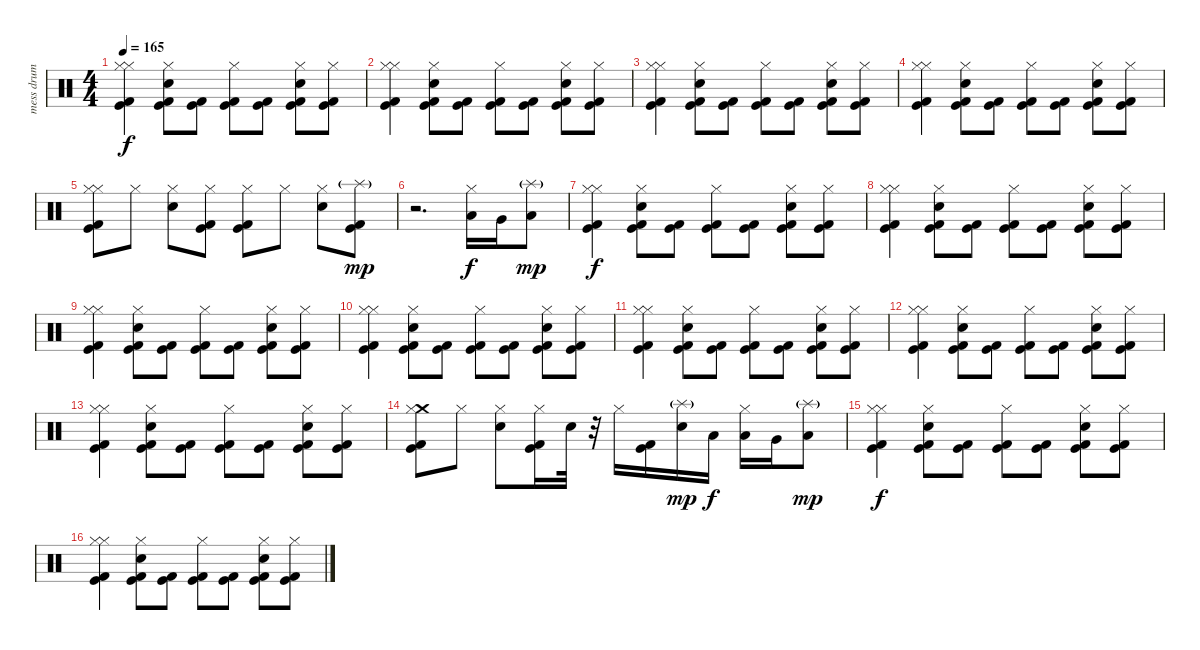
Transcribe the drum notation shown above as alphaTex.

\track ("mess drum" "mess drum") {instrument percussion}
\staff {score}
\articulation defaults
\ts (4 4)
\tempo 165
\clef neutral
\ks c
("Hi-Hat (closed)" "Kick (hit)" "Kick (hit) 2" "Hi-Hat (closed)").4{dy f} ("Kick (hit)" "Kick (hit) 2" "Hi-Hat (closed)" "Electric Snare (hit)").8 ("Kick (hit)" "Kick (hit) 2").8 ("Kick (hit)" "Kick (hit) 2" "Hi-Hat (closed)").8 ("Kick (hit)" "Kick (hit) 2").8 ("Kick (hit)" "Kick (hit) 2" "Hi-Hat (closed)" "Electric Snare (hit)").8 ("Kick (hit)" "Kick (hit) 2" "Hi-Hat (closed)").8 |
("Hi-Hat (closed)" "Kick (hit)" "Kick (hit) 2" "Hi-Hat (closed)").4 ("Kick (hit)" "Kick (hit) 2" "Hi-Hat (closed)" "Electric Snare (hit)").8 ("Kick (hit)" "Kick (hit) 2").8 ("Kick (hit)" "Kick (hit) 2" "Hi-Hat (closed)").8 ("Kick (hit)" "Kick (hit) 2").8 ("Kick (hit)" "Kick (hit) 2" "Hi-Hat (closed)" "Electric Snare (hit)").8 ("Kick (hit)" "Kick (hit) 2" "Hi-Hat (closed)").8 |
("Hi-Hat (closed)" "Kick (hit)" "Kick (hit) 2" "Hi-Hat (closed)").4 ("Kick (hit)" "Kick (hit) 2" "Hi-Hat (closed)" "Electric Snare (hit)").8 ("Kick (hit)" "Kick (hit) 2").8 ("Kick (hit)" "Kick (hit) 2" "Hi-Hat (closed)").8 ("Kick (hit)" "Kick (hit) 2").8 ("Kick (hit)" "Kick (hit) 2" "Hi-Hat (closed)" "Electric Snare (hit)").8 ("Kick (hit)" "Kick (hit) 2" "Hi-Hat (closed)").8 |
("Hi-Hat (closed)" "Kick (hit)" "Kick (hit) 2" "Hi-Hat (closed)").4 ("Kick (hit)" "Kick (hit) 2" "Hi-Hat (closed)" "Electric Snare (hit)").8 ("Kick (hit)" "Kick (hit) 2").8 ("Kick (hit)" "Kick (hit) 2" "Hi-Hat (closed)").8 ("Kick (hit)" "Kick (hit) 2").8 ("Kick (hit)" "Kick (hit) 2" "Hi-Hat (closed)" "Electric Snare (hit)").8 ("Kick (hit)" "Kick (hit) 2" "Hi-Hat (closed)").8 |
("Hi-Hat (closed)" "Kick (hit)" "Kick (hit) 2" "Hi-Hat (closed)").8 "Hi-Hat (closed)".8 ("Electric Snare (hit)" "Hi-Hat (closed)").8 ("Kick (hit)" "Kick (hit) 2" "Hi-Hat (closed)").8 ("Kick (hit)" "Kick (hit) 2" "Hi-Hat (closed)").8 "Hi-Hat (closed)".8 ("Electric Snare (hit)" "Hi-Hat (closed)").8 ("Kick (hit)" "Kick (hit) 2" "Splash (hit)"{g}).8{dy mp} |
r.2{d} ("Low Tom (hit)" "Hi-Hat (closed)").16{dy f} "Very Low Tom (hit)".16 ("Low Floor Tom (hit)" "Splash (hit)"{g}).8{dy mp} |
("Hi-Hat (closed)" "Kick (hit)" "Kick (hit) 2" "Hi-Hat (closed)").4{dy f} ("Kick (hit)" "Kick (hit) 2" "Hi-Hat (closed)" "Electric Snare (hit)").8 ("Kick (hit)" "Kick (hit) 2").8 ("Kick (hit)" "Kick (hit) 2" "Hi-Hat (closed)").8 ("Kick (hit)" "Kick (hit) 2").8 ("Kick (hit)" "Kick (hit) 2" "Hi-Hat (closed)" "Electric Snare (hit)").8 ("Kick (hit)" "Kick (hit) 2" "Hi-Hat (closed)").8 |
("Hi-Hat (closed)" "Kick (hit)" "Kick (hit) 2" "Hi-Hat (closed)").4 ("Kick (hit)" "Kick (hit) 2" "Hi-Hat (closed)" "Electric Snare (hit)").8 ("Kick (hit)" "Kick (hit) 2").8 ("Kick (hit)" "Kick (hit) 2" "Hi-Hat (closed)").8 ("Kick (hit)" "Kick (hit) 2").8 ("Kick (hit)" "Kick (hit) 2" "Hi-Hat (closed)" "Electric Snare (hit)").8 ("Kick (hit)" "Kick (hit) 2" "Hi-Hat (closed)").8 |
("Hi-Hat (closed)" "Kick (hit)" "Kick (hit) 2" "Hi-Hat (closed)").4 ("Kick (hit)" "Kick (hit) 2" "Hi-Hat (closed)" "Electric Snare (hit)").8 ("Kick (hit)" "Kick (hit) 2").8 ("Kick (hit)" "Kick (hit) 2" "Hi-Hat (closed)").8 ("Kick (hit)" "Kick (hit) 2").8 ("Kick (hit)" "Kick (hit) 2" "Hi-Hat (closed)" "Electric Snare (hit)").8 ("Kick (hit)" "Kick (hit) 2" "Hi-Hat (closed)").8 |
("Hi-Hat (closed)" "Kick (hit)" "Kick (hit) 2" "Hi-Hat (closed)").4 ("Kick (hit)" "Kick (hit) 2" "Hi-Hat (closed)" "Electric Snare (hit)").8 ("Kick (hit)" "Kick (hit) 2").8 ("Kick (hit)" "Kick (hit) 2" "Hi-Hat (closed)").8 ("Kick (hit)" "Kick (hit) 2").8 ("Kick (hit)" "Kick (hit) 2" "Hi-Hat (closed)" "Electric Snare (hit)").8 ("Kick (hit)" "Kick (hit) 2" "Hi-Hat (closed)").8 |
("Hi-Hat (closed)" "Kick (hit)" "Kick (hit) 2" "Hi-Hat (closed)").4 ("Kick (hit)" "Kick (hit) 2" "Hi-Hat (closed)" "Electric Snare (hit)").8 ("Kick (hit)" "Kick (hit) 2").8 ("Kick (hit)" "Kick (hit) 2" "Hi-Hat (closed)").8 ("Kick (hit)" "Kick (hit) 2").8 ("Kick (hit)" "Kick (hit) 2" "Hi-Hat (closed)" "Electric Snare (hit)").8 ("Kick (hit)" "Kick (hit) 2" "Hi-Hat (closed)").8 |
("Hi-Hat (closed)" "Kick (hit)" "Kick (hit) 2" "Hi-Hat (closed)").4 ("Kick (hit)" "Kick (hit) 2" "Hi-Hat (closed)" "Electric Snare (hit)").8 ("Kick (hit)" "Kick (hit) 2").8 ("Kick (hit)" "Kick (hit) 2" "Hi-Hat (closed)").8 ("Kick (hit)" "Kick (hit) 2").8 ("Kick (hit)" "Kick (hit) 2" "Hi-Hat (closed)" "Electric Snare (hit)").8 ("Kick (hit)" "Kick (hit) 2" "Hi-Hat (closed)").8 |
("Hi-Hat (closed)" "Kick (hit)" "Kick (hit) 2" "Hi-Hat (closed)").4 ("Kick (hit)" "Kick (hit) 2" "Hi-Hat (closed)" "Electric Snare (hit)").8 ("Kick (hit)" "Kick (hit) 2").8 ("Kick (hit)" "Kick (hit) 2" "Hi-Hat (closed)").8 ("Kick (hit)" "Kick (hit) 2").8 ("Kick (hit)" "Kick (hit) 2" "Hi-Hat (closed)" "Electric Snare (hit)").8 ("Kick (hit)" "Kick (hit) 2" "Hi-Hat (closed)").8 |
("Crash medium (hit)" "Kick (hit)" "Kick (hit) 2" "Hi-Hat (closed)").8 "Hi-Hat (closed)".8 ("Electric Snare (hit)" "Hi-Hat (closed)").8 ("Kick (hit)" "Kick (hit) 2" "Hi-Hat (closed)").16 "Electric Snare (hit)".32 r.32 "Hi-Hat (closed)".16 ("Kick (hit) 2" "Kick (hit)").16 ("Electric Snare (hit)" "Splash (hit)"{g}).16{dy mp} "Low Tom (hit)".16{dy f} ("Low Tom (hit)" "Hi-Hat (closed)").16 "Very Low Tom (hit)".16 ("Low Floor Tom (hit)" "Splash (hit)"{g}).8{dy mp} |
("Hi-Hat (closed)" "Kick (hit)" "Kick (hit) 2" "Hi-Hat (closed)").4{dy f} ("Kick (hit)" "Kick (hit) 2" "Hi-Hat (closed)" "Electric Snare (hit)").8 ("Kick (hit)" "Kick (hit) 2").8 ("Kick (hit)" "Kick (hit) 2" "Hi-Hat (closed)").8 ("Kick (hit)" "Kick (hit) 2").8 ("Kick (hit)" "Kick (hit) 2" "Hi-Hat (closed)" "Electric Snare (hit)").8 ("Kick (hit)" "Kick (hit) 2" "Hi-Hat (closed)").8 |
("Hi-Hat (closed)" "Kick (hit)" "Kick (hit) 2" "Hi-Hat (closed)").4 ("Kick (hit)" "Kick (hit) 2" "Hi-Hat (closed)" "Electric Snare (hit)").8 ("Kick (hit)" "Kick (hit) 2").8 ("Kick (hit)" "Kick (hit) 2" "Hi-Hat (closed)").8 ("Kick (hit)" "Kick (hit) 2").8 ("Kick (hit)" "Kick (hit) 2" "Hi-Hat (closed)" "Electric Snare (hit)").8 ("Kick (hit)" "Kick (hit) 2" "Hi-Hat (closed)").8
